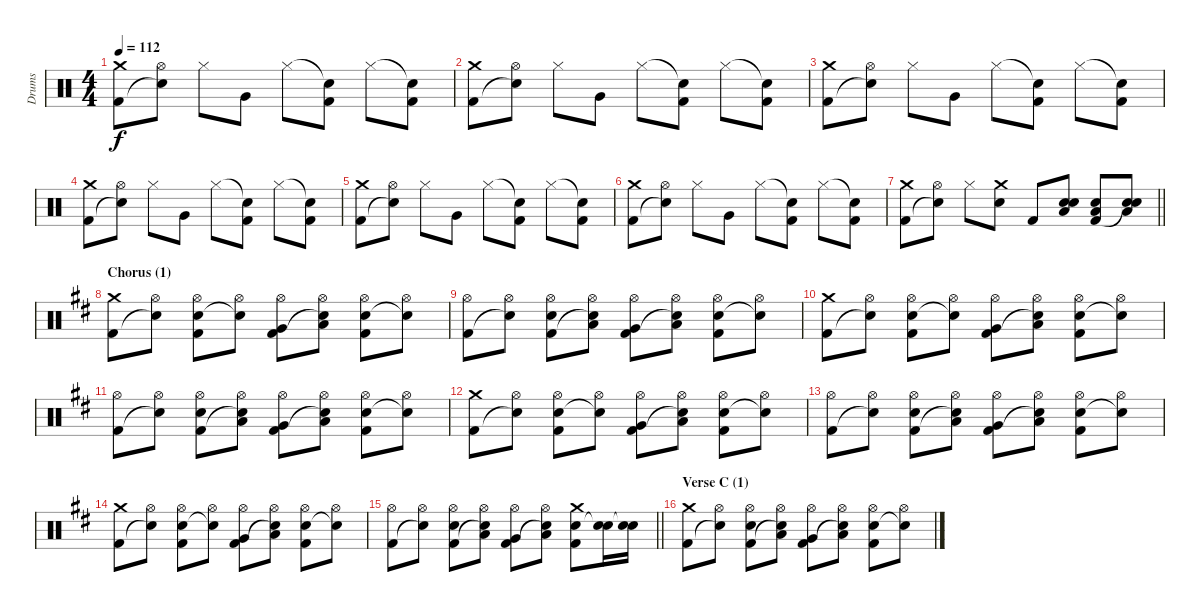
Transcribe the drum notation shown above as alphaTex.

\track ("Drums" "Drums") {instrument percussion}
\staff {score}
\articulation defaults
\ts (4 4)
\tempo 112
\clef neutral
\ks aminor
("Crash medium (hit)" "Kick (hit) 2").8{dy f} ("Hi-Hat (open)" "Snare (hit)"{t}).8 "Hi-Hat (closed)".8 "Very Low Tom (hit)".8 "Hi-Hat (closed)".8 ("Snare (hit)"{t} "Kick (hit) 2").8 "Hi-Hat (closed)".8 ("Snare (hit)"{t} "Kick (hit) 2").8 |
("Crash medium (hit)" "Kick (hit) 2").8 ("Hi-Hat (open)" "Snare (hit)"{t}).8 "Hi-Hat (closed)".8 "Very Low Tom (hit)".8 "Hi-Hat (closed)".8 ("Snare (hit)"{t} "Kick (hit) 2").8 "Hi-Hat (closed)".8 ("Snare (hit)"{t} "Kick (hit) 2").8 |
("Crash medium (hit)" "Kick (hit) 2").8 ("Hi-Hat (open)" "Snare (hit)"{t}).8 "Hi-Hat (closed)".8 "Very Low Tom (hit)".8 "Hi-Hat (closed)".8 ("Snare (hit)"{t} "Kick (hit) 2").8 "Hi-Hat (closed)".8 ("Snare (hit)"{t} "Kick (hit) 2").8 |
("Crash medium (hit)" "Kick (hit) 2").8 ("Hi-Hat (open)" "Snare (hit)"{t}).8 "Hi-Hat (closed)".8 "Very Low Tom (hit)".8 "Hi-Hat (closed)".8 ("Snare (hit)"{t} "Kick (hit) 2").8 "Hi-Hat (closed)".8 ("Snare (hit)"{t} "Kick (hit) 2").8 |
("Crash medium (hit)" "Kick (hit) 2").8 ("Hi-Hat (open)" "Snare (hit)"{t}).8 "Hi-Hat (closed)".8 "Very Low Tom (hit)".8 "Hi-Hat (closed)".8 ("Snare (hit)"{t} "Kick (hit) 2").8 "Hi-Hat (closed)".8 ("Snare (hit)"{t} "Kick (hit) 2").8 |
("Crash medium (hit)" "Kick (hit) 2").8 ("Hi-Hat (open)" "Snare (hit)"{t}).8 "Hi-Hat (closed)".8 "Very Low Tom (hit)".8 "Hi-Hat (closed)".8 ("Snare (hit)"{t} "Kick (hit) 2").8 "Hi-Hat (closed)".8 ("Snare (hit)"{t} "Kick (hit) 2").8 |
\barLineRight lightlight
("Crash medium (hit)" "Kick (hit) 2").8 ("Hi-Hat (open)" "Snare (hit)"{t}).8 "Hi-Hat (closed)".8 ("Crash medium (hit)" "Electric Snare (hit)").8 "Kick (hit) 2".8 ("Electric Snare (hit)" "Low Floor Tom (hit)" "Snare (hit)").8 ("Electric Snare (hit)" "Low Floor Tom (hit)" "Kick (hit) 2").8 ("Electric Snare (hit)" "Low Floor Tom (hit)" "Snare (hit)"{t}).8 |
\section ("" "Chorus (1)")
\ks bminor
("Crash medium (hit)" "Kick (hit) 2").8 ("Hi-Hat (open)" "Snare (hit)"{t}).8 ("Hi-Hat (open)" "Electric Snare (hit)" "Kick (hit) 2").8 ("Hi-Hat (open)" "Snare (hit)"{t}).8 ("Hi-Hat (open)" "Very Low Tom (hit)" "Kick (hit) 2").8 ("Hi-Hat (open)" "Low Floor Tom (hit)" "Snare (hit)"{t}).8 ("Hi-Hat (open)" "Electric Snare (hit)" "Kick (hit) 2").8 ("Hi-Hat (open)" "Snare (hit)"{t}).8 |
("Hi-Hat (open)" "Kick (hit) 2").8 ("Hi-Hat (open)" "Snare (hit)"{t}).8 ("Hi-Hat (open)" "Electric Snare (hit)" "Kick (hit) 2").8 ("Hi-Hat (open)" "Low Tom (hit)" "Snare (hit)"{t}).8 ("Hi-Hat (open)" "Very Low Tom (hit)" "Kick (hit) 2").8 ("Hi-Hat (open)" "Low Floor Tom (hit)" "Snare (hit)"{t}).8 ("Hi-Hat (open)" "Electric Snare (hit)" "Kick (hit) 2").8 ("Hi-Hat (open)" "Snare (hit)"{t}).8 |
("Crash medium (hit)" "Kick (hit) 2").8 ("Hi-Hat (open)" "Snare (hit)"{t}).8 ("Hi-Hat (open)" "Electric Snare (hit)" "Kick (hit) 2").8 ("Hi-Hat (open)" "Snare (hit)"{t}).8 ("Hi-Hat (open)" "Very Low Tom (hit)" "Kick (hit) 2").8 ("Hi-Hat (open)" "Low Floor Tom (hit)" "Snare (hit)"{t}).8 ("Hi-Hat (open)" "Electric Snare (hit)" "Kick (hit) 2").8 ("Hi-Hat (open)" "Snare (hit)"{t}).8 |
("Hi-Hat (open)" "Kick (hit) 2").8 ("Hi-Hat (open)" "Snare (hit)"{t}).8 ("Hi-Hat (open)" "Electric Snare (hit)" "Kick (hit) 2").8 ("Hi-Hat (open)" "Low Tom (hit)" "Snare (hit)"{t}).8 ("Hi-Hat (open)" "Very Low Tom (hit)" "Kick (hit) 2").8 ("Hi-Hat (open)" "Low Floor Tom (hit)" "Snare (hit)"{t}).8 ("Hi-Hat (open)" "Electric Snare (hit)" "Kick (hit) 2").8 ("Hi-Hat (open)" "Snare (hit)"{t}).8 |
("Crash medium (hit)" "Kick (hit) 2").8 ("Hi-Hat (open)" "Snare (hit)"{t}).8 ("Hi-Hat (open)" "Electric Snare (hit)" "Kick (hit) 2").8 ("Hi-Hat (open)" "Snare (hit)"{t}).8 ("Hi-Hat (open)" "Very Low Tom (hit)" "Kick (hit) 2").8 ("Hi-Hat (open)" "Low Floor Tom (hit)" "Snare (hit)"{t}).8 ("Hi-Hat (open)" "Electric Snare (hit)" "Kick (hit) 2").8 ("Hi-Hat (open)" "Snare (hit)"{t}).8 |
("Hi-Hat (open)" "Kick (hit) 2").8 ("Hi-Hat (open)" "Snare (hit)"{t}).8 ("Hi-Hat (open)" "Electric Snare (hit)" "Kick (hit) 2").8 ("Hi-Hat (open)" "Low Tom (hit)" "Snare (hit)"{t}).8 ("Hi-Hat (open)" "Very Low Tom (hit)" "Kick (hit) 2").8 ("Hi-Hat (open)" "Low Floor Tom (hit)" "Snare (hit)"{t}).8 ("Hi-Hat (open)" "Electric Snare (hit)" "Kick (hit) 2").8 ("Hi-Hat (open)" "Snare (hit)"{t}).8 |
("Crash medium (hit)" "Kick (hit) 2").8 ("Hi-Hat (open)" "Snare (hit)"{t}).8 ("Hi-Hat (open)" "Electric Snare (hit)" "Kick (hit) 2").8 ("Hi-Hat (open)" "Snare (hit)"{t}).8 ("Hi-Hat (open)" "Very Low Tom (hit)" "Kick (hit) 2").8 ("Hi-Hat (open)" "Low Floor Tom (hit)" "Snare (hit)"{t}).8 ("Hi-Hat (open)" "Electric Snare (hit)" "Kick (hit) 2").8 ("Hi-Hat (open)" "Snare (hit)"{t}).8 |
\barLineRight lightlight
("Hi-Hat (open)" "Kick (hit) 2").8 ("Hi-Hat (open)" "Snare (hit)"{t}).8 ("Hi-Hat (open)" "Electric Snare (hit)" "Kick (hit) 2").8 ("Hi-Hat (open)" "Low Tom (hit)" "Snare (hit)"{t}).8 ("Hi-Hat (open)" "Very Low Tom (hit)" "Kick (hit) 2").8 ("Hi-Hat (open)" "Low Floor Tom (hit)" "Snare (hit)"{t}).8 ("Crash medium (hit)" "Electric Snare (hit)" "Kick (hit) 2").8 ("Electric Snare (hit)" "Snare (hit)"{t}).16 ("Electric Snare (hit)" "Snare (hit)"{t}).16 |
\section ("" "Verse C (1)")
("Crash medium (hit)" "Kick (hit) 2").8 ("Hi-Hat (open)" "Snare (hit)"{t}).8 ("Hi-Hat (open)" "Electric Snare (hit)" "Kick (hit) 2").8 ("Hi-Hat (open)" "Low Tom (hit)" "Snare (hit)"{t}).8 ("Hi-Hat (open)" "Very Low Tom (hit)" "Kick (hit) 2").8 ("Hi-Hat (open)" "Low Floor Tom (hit)" "Snare (hit)"{t}).8 ("Hi-Hat (open)" "Electric Snare (hit)" "Kick (hit) 2").8 ("Hi-Hat (open)" "Snare (hit)"{t}).8
